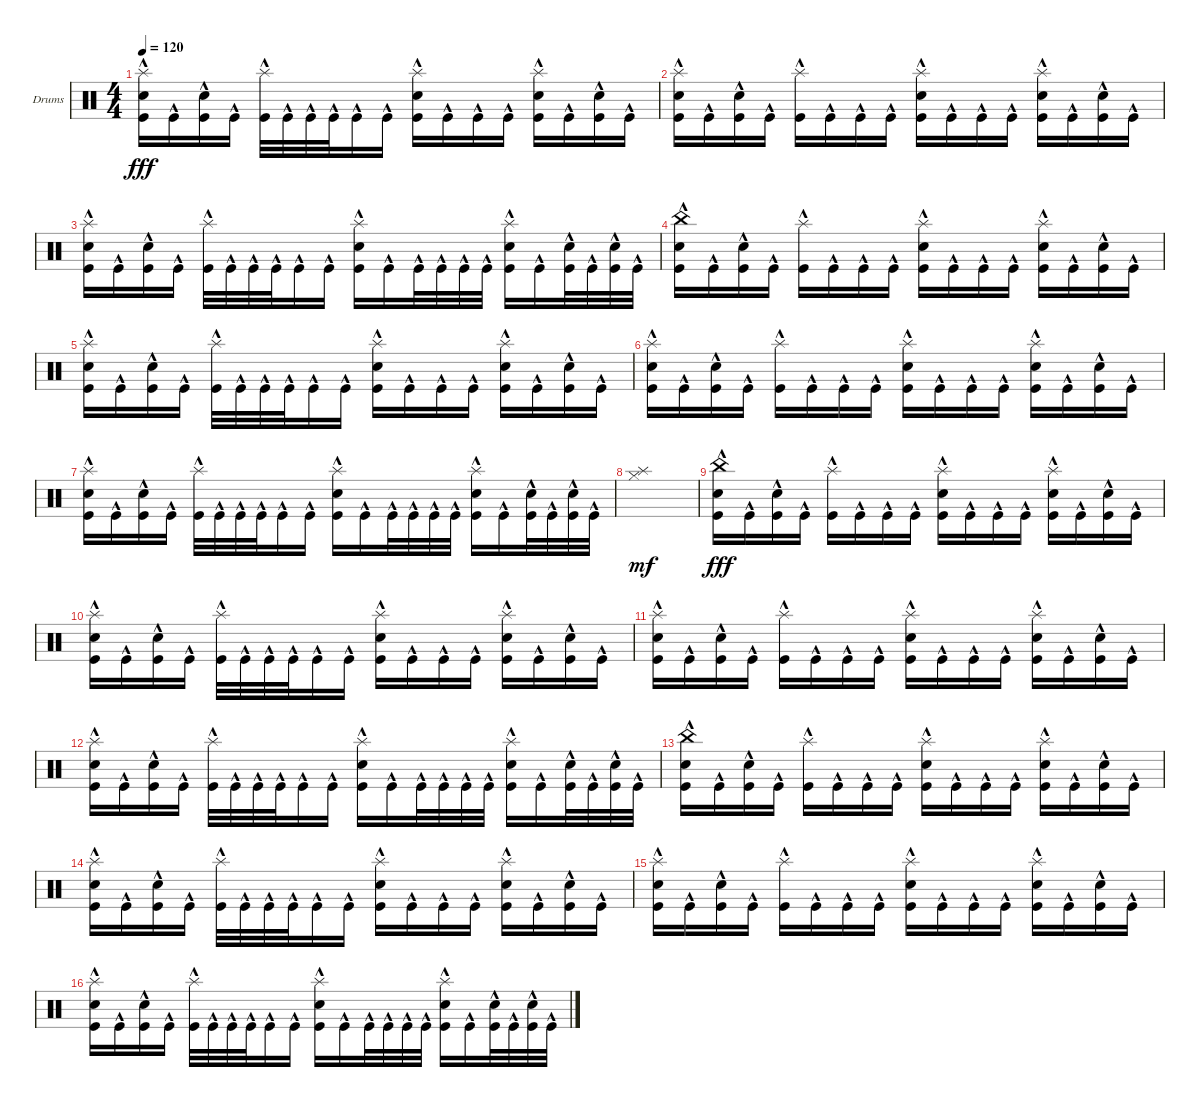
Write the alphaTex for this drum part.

\defaultSystemsLayout 4
\bracketExtendMode groupsimilarinstruments
\firstSystemTrackNameOrientation horizontal
\otherSystemsTrackNameOrientation horizontal
\track ("Drumkit" "Drums") {instrument percussion}
\staff {score}
\articulation defaults
\ts (4 4)
\tempo 120
\clef neutral
\ks c
("Kick (hit)"{hac} "Snare (hit) 2"{hac} "Splash (hit)"{hac}).16{dy fff} "Kick (hit)"{hac}.16 ("Kick (hit)"{hac} "Snare (hit) 2"{hac}).16 "Kick (hit)"{hac}.16 ("Kick (hit)"{hac} "Splash (hit)"{hac}).32 "Kick (hit)"{hac}.32 "Kick (hit)"{hac}.32 "Kick (hit)"{hac}.32 "Kick (hit)"{hac}.16 "Kick (hit)"{hac}.16 ("Kick (hit)"{hac} "Snare (hit) 2"{hac} "Splash (hit)"{hac}).16 "Kick (hit)"{hac}.16 "Kick (hit)"{hac}.16 "Kick (hit)"{hac}.16 ("Kick (hit)"{hac} "Snare (hit) 2"{hac} "Splash (hit)"{hac}).16 "Kick (hit)"{hac}.16 ("Kick (hit)"{hac} "Snare (hit) 2"{hac}).16 "Kick (hit)"{hac}.16 |
("Kick (hit)"{hac} "Snare (hit) 2"{hac} "Splash (hit)"{hac}).16 "Kick (hit)"{hac}.16 ("Kick (hit)"{hac} "Snare (hit) 2"{hac}).16 "Kick (hit)"{hac}.16 ("Kick (hit)"{hac} "Splash (hit)"{hac}).16 "Kick (hit)"{hac}.16 "Kick (hit)"{hac}.16 "Kick (hit)"{hac}.16 ("Kick (hit)"{hac} "Snare (hit) 2"{hac} "Splash (hit)"{hac}).16 "Kick (hit)"{hac}.16 "Kick (hit)"{hac}.16 "Kick (hit)"{hac}.16 ("Kick (hit)"{hac} "Snare (hit) 2"{hac} "Splash (hit)"{hac}).16 "Kick (hit)"{hac}.16 ("Kick (hit)"{hac} "Snare (hit) 2"{hac}).16 "Kick (hit)"{hac}.16 |
("Kick (hit)"{hac} "Snare (hit) 2"{hac} "Splash (hit)"{hac}).16 "Kick (hit)"{hac}.16 ("Kick (hit)"{hac} "Snare (hit) 2"{hac}).16 "Kick (hit)"{hac}.16 ("Kick (hit)"{hac} "Splash (hit)"{hac}).32 "Kick (hit)"{hac}.32 "Kick (hit)"{hac}.32 "Kick (hit)"{hac}.32 "Kick (hit)"{hac}.16 "Kick (hit)"{hac}.16 ("Kick (hit)"{hac} "Snare (hit) 2"{hac} "Splash (hit)"{hac}).16 "Kick (hit)"{hac}.16 "Kick (hit)"{hac}.32 "Kick (hit)"{hac}.32 "Kick (hit)"{hac}.32 "Kick (hit)"{hac}.32 ("Kick (hit)"{hac} "Snare (hit) 2"{hac} "Splash (hit)"{hac}).16 "Kick (hit)"{hac}.16 ("Kick (hit)"{hac} "Snare (hit) 2"{hac}).32 "Kick (hit)"{hac}.32 ("Kick (hit)"{hac} "Snare (hit) 2"{hac}).32 "Kick (hit)"{hac}.32 |
("Kick (hit)"{hac} "Snare (hit) 2"{hac} "China (hit)"{hac}).16 "Kick (hit)"{hac}.16 ("Kick (hit)"{hac} "Snare (hit) 2"{hac}).16 "Kick (hit)"{hac}.16 ("Kick (hit)"{hac} "Splash (hit)"{hac}).16 "Kick (hit)"{hac}.16 "Kick (hit)"{hac}.16 "Kick (hit)"{hac}.16 ("Kick (hit)"{hac} "Snare (hit) 2"{hac} "Splash (hit)"{hac}).16 "Kick (hit)"{hac}.16 "Kick (hit)"{hac}.16 "Kick (hit)"{hac}.16 ("Kick (hit)"{hac} "Snare (hit) 2"{hac} "Splash (hit)"{hac}).16 "Kick (hit)"{hac}.16 ("Kick (hit)"{hac} "Snare (hit) 2"{hac}).16 "Kick (hit)"{hac}.16 |
("Kick (hit)"{hac} "Snare (hit) 2"{hac} "Splash (hit)"{hac}).16 "Kick (hit)"{hac}.16 ("Kick (hit)"{hac} "Snare (hit) 2"{hac}).16 "Kick (hit)"{hac}.16 ("Kick (hit)"{hac} "Splash (hit)"{hac}).32 "Kick (hit)"{hac}.32 "Kick (hit)"{hac}.32 "Kick (hit)"{hac}.32 "Kick (hit)"{hac}.16 "Kick (hit)"{hac}.16 ("Kick (hit)"{hac} "Snare (hit) 2"{hac} "Splash (hit)"{hac}).16 "Kick (hit)"{hac}.16 "Kick (hit)"{hac}.16 "Kick (hit)"{hac}.16 ("Kick (hit)"{hac} "Snare (hit) 2"{hac} "Splash (hit)"{hac}).16 "Kick (hit)"{hac}.16 ("Kick (hit)"{hac} "Snare (hit) 2"{hac}).16 "Kick (hit)"{hac}.16 |
("Kick (hit)"{hac} "Snare (hit) 2"{hac} "Splash (hit)"{hac}).16 "Kick (hit)"{hac}.16 ("Kick (hit)"{hac} "Snare (hit) 2"{hac}).16 "Kick (hit)"{hac}.16 ("Kick (hit)"{hac} "Splash (hit)"{hac}).16 "Kick (hit)"{hac}.16 "Kick (hit)"{hac}.16 "Kick (hit)"{hac}.16 ("Kick (hit)"{hac} "Snare (hit) 2"{hac} "Splash (hit)"{hac}).16 "Kick (hit)"{hac}.16 "Kick (hit)"{hac}.16 "Kick (hit)"{hac}.16 ("Kick (hit)"{hac} "Snare (hit) 2"{hac} "Splash (hit)"{hac}).16 "Kick (hit)"{hac}.16 ("Kick (hit)"{hac} "Snare (hit) 2"{hac}).16 "Kick (hit)"{hac}.16 |
("Kick (hit)"{hac} "Snare (hit) 2"{hac} "Splash (hit)"{hac}).16 "Kick (hit)"{hac}.16 ("Kick (hit)"{hac} "Snare (hit) 2"{hac}).16 "Kick (hit)"{hac}.16 ("Kick (hit)"{hac} "Splash (hit)"{hac}).32 "Kick (hit)"{hac}.32 "Kick (hit)"{hac}.32 "Kick (hit)"{hac}.32 "Kick (hit)"{hac}.16 "Kick (hit)"{hac}.16 ("Kick (hit)"{hac} "Snare (hit) 2"{hac} "Splash (hit)"{hac}).16 "Kick (hit)"{hac}.16 "Kick (hit)"{hac}.32 "Kick (hit)"{hac}.32 "Kick (hit)"{hac}.32 "Kick (hit)"{hac}.32 ("Kick (hit)"{hac} "Snare (hit) 2"{hac} "Splash (hit)"{hac}).16 "Kick (hit)"{hac}.16 ("Kick (hit)"{hac} "Snare (hit) 2"{hac}).32 "Kick (hit)"{hac}.32 ("Kick (hit)"{hac} "Snare (hit) 2"{hac}).32 "Kick (hit)"{hac}.32 |
("Hi-Hat (closed)" "Splash (hit)").1{dy mf} |
("Kick (hit)"{hac} "Snare (hit) 2"{hac} "China (hit)"{hac}).16{dy fff} "Kick (hit)"{hac}.16 ("Kick (hit)"{hac} "Snare (hit) 2"{hac}).16 "Kick (hit)"{hac}.16 ("Kick (hit)"{hac} "Splash (hit)"{hac}).16 "Kick (hit)"{hac}.16 "Kick (hit)"{hac}.16 "Kick (hit)"{hac}.16 ("Kick (hit)"{hac} "Snare (hit) 2"{hac} "Splash (hit)"{hac}).16 "Kick (hit)"{hac}.16 "Kick (hit)"{hac}.16 "Kick (hit)"{hac}.16 ("Kick (hit)"{hac} "Snare (hit) 2"{hac} "Splash (hit)"{hac}).16 "Kick (hit)"{hac}.16 ("Kick (hit)"{hac} "Snare (hit) 2"{hac}).16 "Kick (hit)"{hac}.16 |
("Kick (hit)"{hac} "Snare (hit) 2"{hac} "Splash (hit)"{hac}).16 "Kick (hit)"{hac}.16 ("Kick (hit)"{hac} "Snare (hit) 2"{hac}).16 "Kick (hit)"{hac}.16 ("Kick (hit)"{hac} "Splash (hit)"{hac}).32 "Kick (hit)"{hac}.32 "Kick (hit)"{hac}.32 "Kick (hit)"{hac}.32 "Kick (hit)"{hac}.16 "Kick (hit)"{hac}.16 ("Kick (hit)"{hac} "Snare (hit) 2"{hac} "Splash (hit)"{hac}).16 "Kick (hit)"{hac}.16 "Kick (hit)"{hac}.16 "Kick (hit)"{hac}.16 ("Kick (hit)"{hac} "Snare (hit) 2"{hac} "Splash (hit)"{hac}).16 "Kick (hit)"{hac}.16 ("Kick (hit)"{hac} "Snare (hit) 2"{hac}).16 "Kick (hit)"{hac}.16 |
("Kick (hit)"{hac} "Snare (hit) 2"{hac} "Splash (hit)"{hac}).16 "Kick (hit)"{hac}.16 ("Kick (hit)"{hac} "Snare (hit) 2"{hac}).16 "Kick (hit)"{hac}.16 ("Kick (hit)"{hac} "Splash (hit)"{hac}).16 "Kick (hit)"{hac}.16 "Kick (hit)"{hac}.16 "Kick (hit)"{hac}.16 ("Kick (hit)"{hac} "Snare (hit) 2"{hac} "Splash (hit)"{hac}).16 "Kick (hit)"{hac}.16 "Kick (hit)"{hac}.16 "Kick (hit)"{hac}.16 ("Kick (hit)"{hac} "Snare (hit) 2"{hac} "Splash (hit)"{hac}).16 "Kick (hit)"{hac}.16 ("Kick (hit)"{hac} "Snare (hit) 2"{hac}).16 "Kick (hit)"{hac}.16 |
("Kick (hit)"{hac} "Snare (hit) 2"{hac} "Splash (hit)"{hac}).16 "Kick (hit)"{hac}.16 ("Kick (hit)"{hac} "Snare (hit) 2"{hac}).16 "Kick (hit)"{hac}.16 ("Kick (hit)"{hac} "Splash (hit)"{hac}).32 "Kick (hit)"{hac}.32 "Kick (hit)"{hac}.32 "Kick (hit)"{hac}.32 "Kick (hit)"{hac}.16 "Kick (hit)"{hac}.16 ("Kick (hit)"{hac} "Snare (hit) 2"{hac} "Splash (hit)"{hac}).16 "Kick (hit)"{hac}.16 "Kick (hit)"{hac}.32 "Kick (hit)"{hac}.32 "Kick (hit)"{hac}.32 "Kick (hit)"{hac}.32 ("Kick (hit)"{hac} "Snare (hit) 2"{hac} "Splash (hit)"{hac}).16 "Kick (hit)"{hac}.16 ("Kick (hit)"{hac} "Snare (hit) 2"{hac}).32 "Kick (hit)"{hac}.32 ("Kick (hit)"{hac} "Snare (hit) 2"{hac}).32 "Kick (hit)"{hac}.32 |
("Kick (hit)"{hac} "Snare (hit) 2"{hac} "China (hit)"{hac}).16 "Kick (hit)"{hac}.16 ("Kick (hit)"{hac} "Snare (hit) 2"{hac}).16 "Kick (hit)"{hac}.16 ("Kick (hit)"{hac} "Splash (hit)"{hac}).16 "Kick (hit)"{hac}.16 "Kick (hit)"{hac}.16 "Kick (hit)"{hac}.16 ("Kick (hit)"{hac} "Snare (hit) 2"{hac} "Splash (hit)"{hac}).16 "Kick (hit)"{hac}.16 "Kick (hit)"{hac}.16 "Kick (hit)"{hac}.16 ("Kick (hit)"{hac} "Snare (hit) 2"{hac} "Splash (hit)"{hac}).16 "Kick (hit)"{hac}.16 ("Kick (hit)"{hac} "Snare (hit) 2"{hac}).16 "Kick (hit)"{hac}.16 |
("Kick (hit)"{hac} "Snare (hit) 2"{hac} "Splash (hit)"{hac}).16 "Kick (hit)"{hac}.16 ("Kick (hit)"{hac} "Snare (hit) 2"{hac}).16 "Kick (hit)"{hac}.16 ("Kick (hit)"{hac} "Splash (hit)"{hac}).32 "Kick (hit)"{hac}.32 "Kick (hit)"{hac}.32 "Kick (hit)"{hac}.32 "Kick (hit)"{hac}.16 "Kick (hit)"{hac}.16 ("Kick (hit)"{hac} "Snare (hit) 2"{hac} "Splash (hit)"{hac}).16 "Kick (hit)"{hac}.16 "Kick (hit)"{hac}.16 "Kick (hit)"{hac}.16 ("Kick (hit)"{hac} "Snare (hit) 2"{hac} "Splash (hit)"{hac}).16 "Kick (hit)"{hac}.16 ("Kick (hit)"{hac} "Snare (hit) 2"{hac}).16 "Kick (hit)"{hac}.16 |
("Kick (hit)"{hac} "Snare (hit) 2"{hac} "Splash (hit)"{hac}).16 "Kick (hit)"{hac}.16 ("Kick (hit)"{hac} "Snare (hit) 2"{hac}).16 "Kick (hit)"{hac}.16 ("Kick (hit)"{hac} "Splash (hit)"{hac}).16 "Kick (hit)"{hac}.16 "Kick (hit)"{hac}.16 "Kick (hit)"{hac}.16 ("Kick (hit)"{hac} "Snare (hit) 2"{hac} "Splash (hit)"{hac}).16 "Kick (hit)"{hac}.16 "Kick (hit)"{hac}.16 "Kick (hit)"{hac}.16 ("Kick (hit)"{hac} "Snare (hit) 2"{hac} "Splash (hit)"{hac}).16 "Kick (hit)"{hac}.16 ("Kick (hit)"{hac} "Snare (hit) 2"{hac}).16 "Kick (hit)"{hac}.16 |
("Kick (hit)"{hac} "Snare (hit) 2"{hac} "Splash (hit)"{hac}).16 "Kick (hit)"{hac}.16 ("Kick (hit)"{hac} "Snare (hit) 2"{hac}).16 "Kick (hit)"{hac}.16 ("Kick (hit)"{hac} "Splash (hit)"{hac}).32 "Kick (hit)"{hac}.32 "Kick (hit)"{hac}.32 "Kick (hit)"{hac}.32 "Kick (hit)"{hac}.16 "Kick (hit)"{hac}.16 ("Kick (hit)"{hac} "Snare (hit) 2"{hac} "Splash (hit)"{hac}).16 "Kick (hit)"{hac}.16 "Kick (hit)"{hac}.32 "Kick (hit)"{hac}.32 "Kick (hit)"{hac}.32 "Kick (hit)"{hac}.32 ("Kick (hit)"{hac} "Snare (hit) 2"{hac} "Splash (hit)"{hac}).16 "Kick (hit)"{hac}.16 ("Kick (hit)"{hac} "Snare (hit) 2"{hac}).32 "Kick (hit)"{hac}.32 ("Kick (hit)"{hac} "Snare (hit) 2"{hac}).32 "Kick (hit)"{hac}.32
